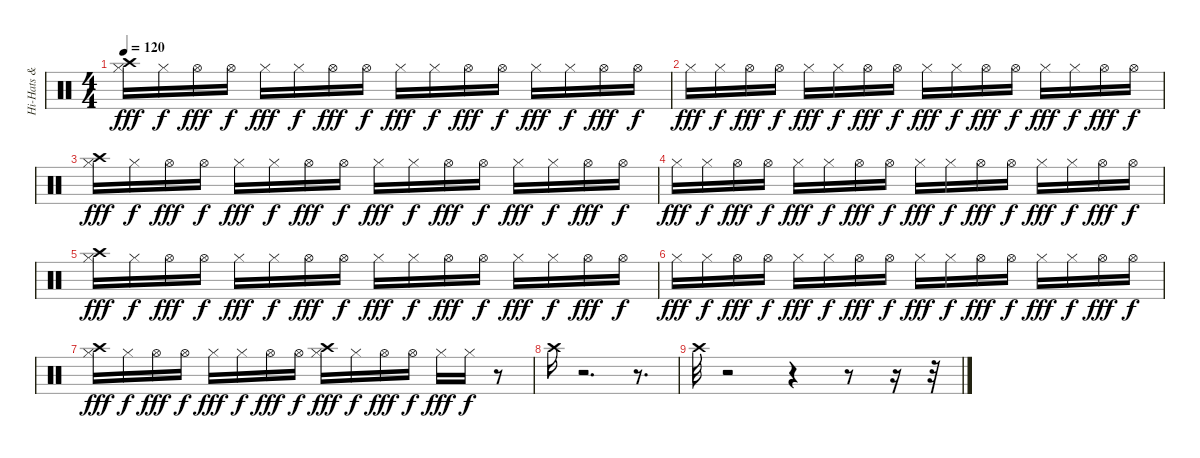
\track ("Hi-Hats & Cymbal" "Hi-Hats & ") {instrument percussion}
\staff {score}
\articulation defaults
\ts (4 4)
\tempo 120
\clef neutral
\ks c
("Hi-Hat (closed)" "Crash high (hit)").16{dy fff} "Hi-Hat (closed)".16{dy f} "Hi-Hat (open)".16{dy fff} "Hi-Hat (open)".16{dy f} "Hi-Hat (closed)".16{dy fff} "Hi-Hat (closed)".16{dy f} "Hi-Hat (open)".16{dy fff} "Hi-Hat (open)".16{dy f} "Hi-Hat (closed)".16{dy fff} "Hi-Hat (closed)".16{dy f} "Hi-Hat (open)".16{dy fff} "Hi-Hat (open)".16{dy f} "Hi-Hat (closed)".16{dy fff} "Hi-Hat (closed)".16{dy f} "Hi-Hat (open)".16{dy fff} "Hi-Hat (open)".16{dy f} |
"Hi-Hat (closed)".16{dy fff} "Hi-Hat (closed)".16{dy f} "Hi-Hat (open)".16{dy fff} "Hi-Hat (open)".16{dy f} "Hi-Hat (closed)".16{dy fff} "Hi-Hat (closed)".16{dy f} "Hi-Hat (open)".16{dy fff} "Hi-Hat (open)".16{dy f} "Hi-Hat (closed)".16{dy fff} "Hi-Hat (closed)".16{dy f} "Hi-Hat (open)".16{dy fff} "Hi-Hat (open)".16{dy f} "Hi-Hat (closed)".16{dy fff} "Hi-Hat (closed)".16{dy f} "Hi-Hat (open)".16{dy fff} "Hi-Hat (open)".16{dy f} |
("Hi-Hat (closed)" "Crash high (hit)").16{dy fff} "Hi-Hat (closed)".16{dy f} "Hi-Hat (open)".16{dy fff} "Hi-Hat (open)".16{dy f} "Hi-Hat (closed)".16{dy fff} "Hi-Hat (closed)".16{dy f} "Hi-Hat (open)".16{dy fff} "Hi-Hat (open)".16{dy f} "Hi-Hat (closed)".16{dy fff} "Hi-Hat (closed)".16{dy f} "Hi-Hat (open)".16{dy fff} "Hi-Hat (open)".16{dy f} "Hi-Hat (closed)".16{dy fff} "Hi-Hat (closed)".16{dy f} "Hi-Hat (open)".16{dy fff} "Hi-Hat (open)".16{dy f} |
"Hi-Hat (closed)".16{dy fff} "Hi-Hat (closed)".16{dy f} "Hi-Hat (open)".16{dy fff} "Hi-Hat (open)".16{dy f} "Hi-Hat (closed)".16{dy fff} "Hi-Hat (closed)".16{dy f} "Hi-Hat (open)".16{dy fff} "Hi-Hat (open)".16{dy f} "Hi-Hat (closed)".16{dy fff} "Hi-Hat (closed)".16{dy f} "Hi-Hat (open)".16{dy fff} "Hi-Hat (open)".16{dy f} "Hi-Hat (closed)".16{dy fff} "Hi-Hat (closed)".16{dy f} "Hi-Hat (open)".16{dy fff} "Hi-Hat (open)".16{dy f} |
("Hi-Hat (closed)" "Crash high (hit)").16{dy fff} "Hi-Hat (closed)".16{dy f} "Hi-Hat (open)".16{dy fff} "Hi-Hat (open)".16{dy f} "Hi-Hat (closed)".16{dy fff} "Hi-Hat (closed)".16{dy f} "Hi-Hat (open)".16{dy fff} "Hi-Hat (open)".16{dy f} "Hi-Hat (closed)".16{dy fff} "Hi-Hat (closed)".16{dy f} "Hi-Hat (open)".16{dy fff} "Hi-Hat (open)".16{dy f} "Hi-Hat (closed)".16{dy fff} "Hi-Hat (closed)".16{dy f} "Hi-Hat (open)".16{dy fff} "Hi-Hat (open)".16{dy f} |
"Hi-Hat (closed)".16{dy fff} "Hi-Hat (closed)".16{dy f} "Hi-Hat (open)".16{dy fff} "Hi-Hat (open)".16{dy f} "Hi-Hat (closed)".16{dy fff} "Hi-Hat (closed)".16{dy f} "Hi-Hat (open)".16{dy fff} "Hi-Hat (open)".16{dy f} "Hi-Hat (closed)".16{dy fff} "Hi-Hat (closed)".16{dy f} "Hi-Hat (open)".16{dy fff} "Hi-Hat (open)".16{dy f} "Hi-Hat (closed)".16{dy fff} "Hi-Hat (closed)".16{dy f} "Hi-Hat (open)".16{dy fff} "Hi-Hat (open)".16{dy f} |
("Hi-Hat (closed)" "Crash high (hit)").16{dy fff} "Hi-Hat (closed)".16{dy f} "Hi-Hat (open)".16{dy fff} "Hi-Hat (open)".16{dy f} "Hi-Hat (closed)".16{dy fff} "Hi-Hat (closed)".16{dy f} "Hi-Hat (open)".16{dy fff} "Hi-Hat (open)".16{dy f} ("Hi-Hat (closed)" "Crash high (hit)").16{dy fff} "Hi-Hat (closed)".16{dy f} "Hi-Hat (open)".16{dy fff} "Hi-Hat (open)".16{dy f} "Hi-Hat (closed)".16{dy fff} "Hi-Hat (closed)".16{dy f} r.8 |
"Crash high (hit)".16 r.2{d} r.8{d} |
"Crash high (hit)".32 r.2 r.4 r.8 r.16 r.32
